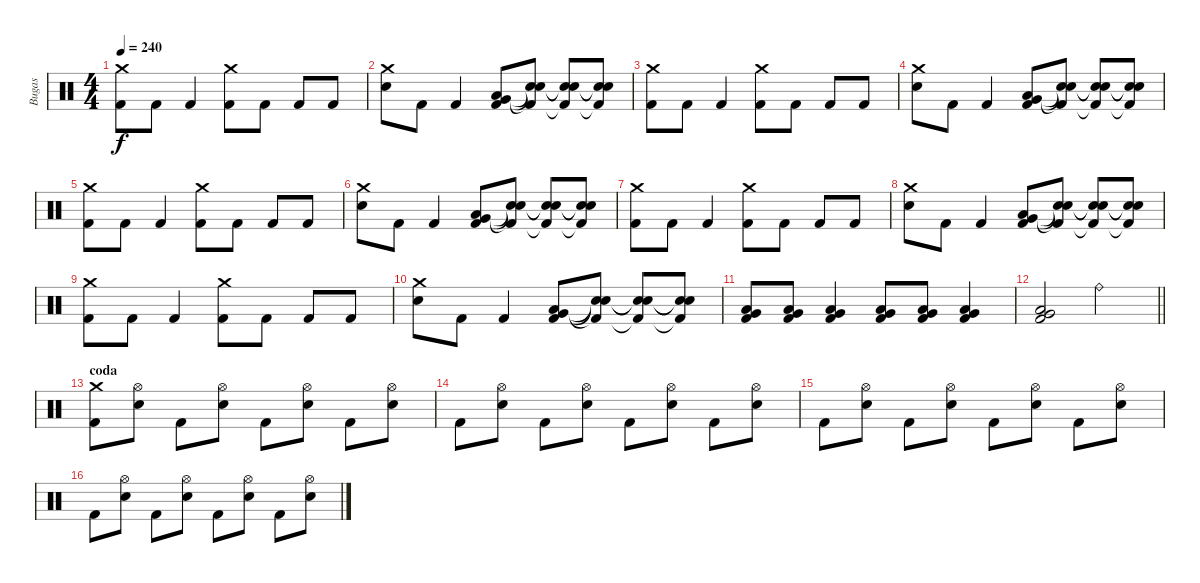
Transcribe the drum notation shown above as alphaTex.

\track ("Bugas" "Bugas") {instrument percussion}
\staff {score}
\articulation defaults
\ts (4 4)
\tempo 240
\clef neutral
\ks c
("Crash medium (hit)" "Kick (hit) 2").8{dy f} "Kick (hit) 2".8 "Kick (hit) 2".4 ("Crash medium (hit)" "Kick (hit) 2").8 "Kick (hit) 2".8 "Kick (hit) 2".8 "Kick (hit) 2".8 |
("Crash medium (hit)" "Electric Snare (hit)").8 "Kick (hit) 2".8 "Kick (hit) 2".4 ("Kick (hit) 2" "Very Low Tom (hit)" "Low Tom (hit)").8 ("Snare (hit)"{t} "Snare (hit)"{t} "Kick (hit) 2"{t}).8 ("Snare (hit)"{t} "Snare (hit)"{t} "Kick (hit) 2"{t}).8 ("Snare (hit)"{t} "Snare (hit)"{t} "Kick (hit) 2"{t}).8 |
("Crash medium (hit)" "Kick (hit) 2").8 "Kick (hit) 2".8 "Kick (hit) 2".4 ("Crash medium (hit)" "Kick (hit) 2").8 "Kick (hit) 2".8 "Kick (hit) 2".8 "Kick (hit) 2".8 |
("Crash medium (hit)" "Electric Snare (hit)").8 "Kick (hit) 2".8 "Kick (hit) 2".4 ("Kick (hit) 2" "Very Low Tom (hit)" "Low Tom (hit)").8 ("Snare (hit)"{t} "Snare (hit)"{t} "Kick (hit) 2"{t}).8 ("Snare (hit)"{t} "Snare (hit)"{t} "Kick (hit) 2"{t}).8 ("Snare (hit)"{t} "Snare (hit)"{t} "Kick (hit) 2"{t}).8 |
("Crash medium (hit)" "Kick (hit) 2").8 "Kick (hit) 2".8 "Kick (hit) 2".4 ("Crash medium (hit)" "Kick (hit) 2").8 "Kick (hit) 2".8 "Kick (hit) 2".8 "Kick (hit) 2".8 |
("Crash medium (hit)" "Electric Snare (hit)").8 "Kick (hit) 2".8 "Kick (hit) 2".4 ("Kick (hit) 2" "Very Low Tom (hit)" "Low Tom (hit)").8 ("Snare (hit)"{t} "Snare (hit)"{t} "Kick (hit) 2"{t}).8 ("Snare (hit)"{t} "Snare (hit)"{t} "Kick (hit) 2"{t}).8 ("Snare (hit)"{t} "Snare (hit)"{t} "Kick (hit) 2"{t}).8 |
("Crash medium (hit)" "Kick (hit) 2").8 "Kick (hit) 2".8 "Kick (hit) 2".4 ("Crash medium (hit)" "Kick (hit) 2").8 "Kick (hit) 2".8 "Kick (hit) 2".8 "Kick (hit) 2".8 |
("Crash medium (hit)" "Electric Snare (hit)").8 "Kick (hit) 2".8 "Kick (hit) 2".4 ("Kick (hit) 2" "Very Low Tom (hit)" "Low Tom (hit)").8 ("Snare (hit)"{t} "Snare (hit)"{t} "Kick (hit) 2"{t}).8 ("Snare (hit)"{t} "Snare (hit)"{t} "Kick (hit) 2"{t}).8 ("Snare (hit)"{t} "Snare (hit)"{t} "Kick (hit) 2"{t}).8 |
("Crash medium (hit)" "Kick (hit) 2").8 "Kick (hit) 2".8 "Kick (hit) 2".4 ("Crash medium (hit)" "Kick (hit) 2").8 "Kick (hit) 2".8 "Kick (hit) 2".8 "Kick (hit) 2".8 |
("Crash medium (hit)" "Electric Snare (hit)").8 "Kick (hit) 2".8 "Kick (hit) 2".4 ("Kick (hit) 2" "Very Low Tom (hit)" "Low Tom (hit)").8 ("Snare (hit)"{t} "Snare (hit)"{t} "Kick (hit) 2"{t}).8 ("Snare (hit)"{t} "Snare (hit)"{t} "Kick (hit) 2"{t}).8 ("Snare (hit)"{t} "Snare (hit)"{t} "Kick (hit) 2"{t}).8 |
("Low Tom (hit)" "Very Low Tom (hit)" "Kick (hit) 2").8 ("Low Tom (hit)" "Very Low Tom (hit)" "Kick (hit) 2").8 ("Low Tom (hit)" "Very Low Tom (hit)" "Kick (hit) 2").4 ("Low Tom (hit)" "Very Low Tom (hit)" "Kick (hit) 2").8 ("Low Tom (hit)" "Very Low Tom (hit)" "Kick (hit) 2").8 ("Low Tom (hit)" "Very Low Tom (hit)" "Kick (hit) 2").4 |
\barLineRight lightlight
("Very Low Tom (hit)" "Low Tom (hit)" "Kick (hit) 2").2 "Ride (bell)".2 |
\section ("" "coda")
("Crash medium (hit)" "Kick (hit) 2").8 ("Hi-Hat (open)" "Electric Snare (hit)").8 "Kick (hit) 2".8 ("Hi-Hat (open)" "Electric Snare (hit)").8 "Kick (hit) 2".8 ("Hi-Hat (open)" "Electric Snare (hit)").8 "Kick (hit) 2".8 ("Hi-Hat (open)" "Electric Snare (hit)").8 |
"Kick (hit) 2".8 ("Hi-Hat (open)" "Electric Snare (hit)").8 "Kick (hit) 2".8 ("Hi-Hat (open)" "Electric Snare (hit)").8 "Kick (hit) 2".8 ("Hi-Hat (open)" "Electric Snare (hit)").8 "Kick (hit) 2".8 ("Hi-Hat (open)" "Electric Snare (hit)").8 |
"Kick (hit) 2".8 ("Hi-Hat (open)" "Electric Snare (hit)").8 "Kick (hit) 2".8 ("Hi-Hat (open)" "Electric Snare (hit)").8 "Kick (hit) 2".8 ("Hi-Hat (open)" "Electric Snare (hit)").8 "Kick (hit) 2".8 ("Hi-Hat (open)" "Electric Snare (hit)").8 |
"Kick (hit) 2".8 ("Hi-Hat (open)" "Electric Snare (hit)").8 "Kick (hit) 2".8 ("Hi-Hat (open)" "Electric Snare (hit)").8 "Kick (hit) 2".8 ("Hi-Hat (open)" "Electric Snare (hit)").8 "Kick (hit) 2".8 ("Hi-Hat (open)" "Electric Snare (hit)").8
